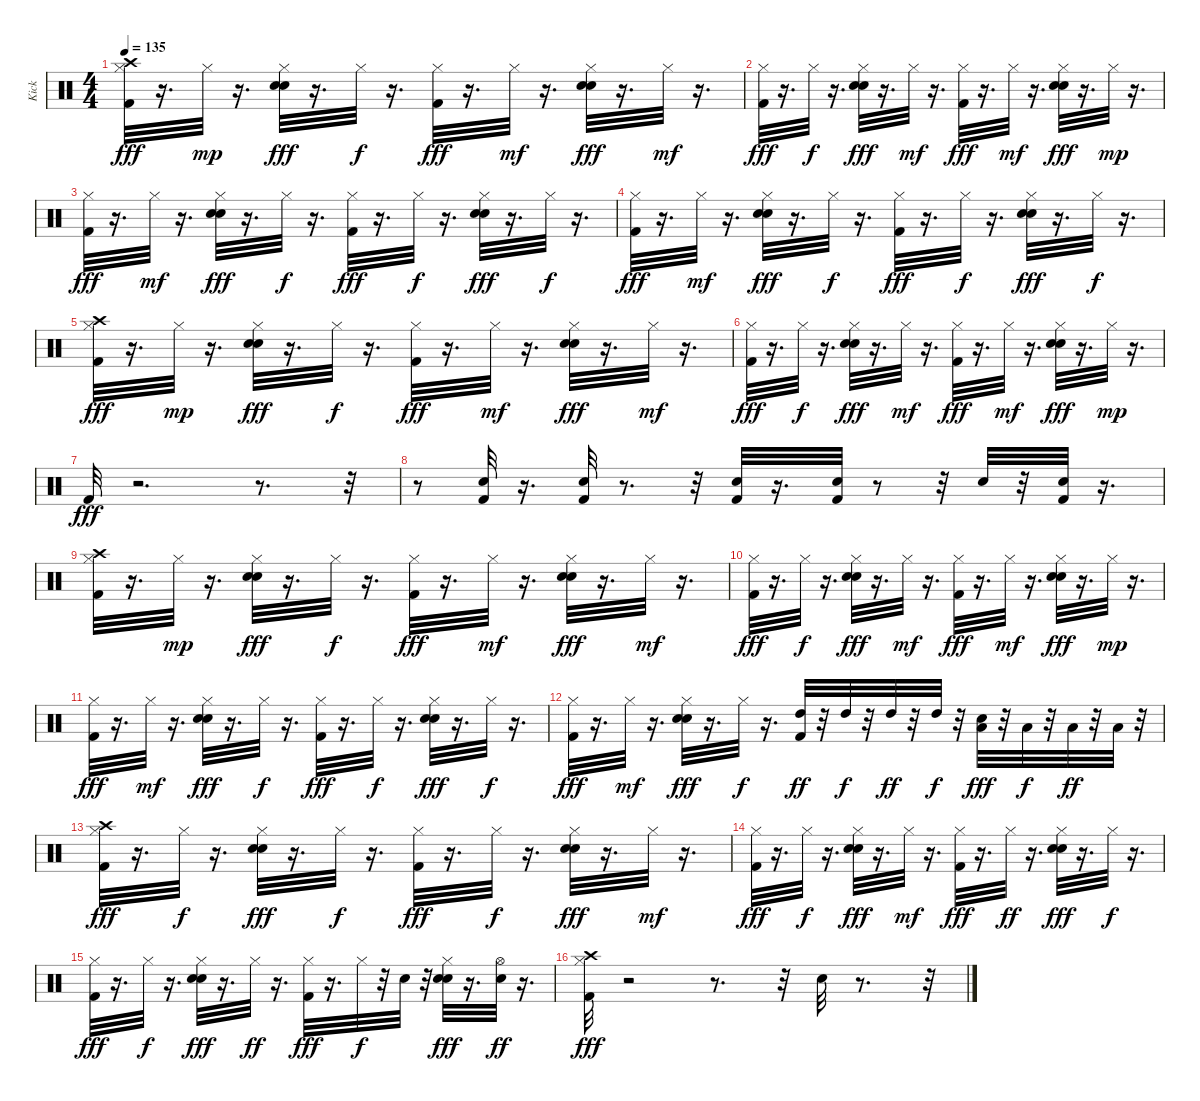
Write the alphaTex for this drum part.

\track ("Kick" "Kick") {instrument percussion}
\staff {score}
\articulation defaults
\ts (4 4)
\tempo 135
\clef neutral
\ks c
("Kick (hit) 2" "Hi-Hat (closed)" "Crash high (hit)").32{dy fff} r.16{d} "Hi-Hat (closed)".32{dy mp} r.16{d} ("Electric Snare (hit)" "Hi-Hat (closed)" "Hand Clap (hit)").32{dy fff} r.16{d} "Hi-Hat (closed)".32{dy f} r.16{d} ("Kick (hit) 2" "Hi-Hat (closed)").32{dy fff} r.16{d} "Hi-Hat (closed)".32{dy mf} r.16{d} ("Electric Snare (hit)" "Hi-Hat (closed)" "Hand Clap (hit)").32{dy fff} r.16{d} "Hi-Hat (closed)".32{dy mf} r.16{d} |
("Kick (hit) 2" "Hi-Hat (closed)").32{dy fff} r.16{d} "Hi-Hat (closed)".32{dy f} r.16{d} ("Electric Snare (hit)" "Hi-Hat (closed)" "Hand Clap (hit)").32{dy fff} r.16{d} "Hi-Hat (closed)".32{dy mf} r.16{d} ("Kick (hit) 2" "Hi-Hat (closed)").32{dy fff} r.16{d} "Hi-Hat (closed)".32{dy mf} r.16{d} ("Electric Snare (hit)" "Hi-Hat (closed)" "Hand Clap (hit)").32{dy fff} r.16{d} "Hi-Hat (closed)".32{dy mp} r.16{d} |
("Kick (hit) 2" "Hi-Hat (closed)").32{dy fff} r.16{d} "Hi-Hat (closed)".32{dy mf} r.16{d} ("Electric Snare (hit)" "Hi-Hat (closed)" "Hand Clap (hit)").32{dy fff} r.16{d} "Hi-Hat (closed)".32{dy f} r.16{d} ("Kick (hit) 2" "Hi-Hat (closed)").32{dy fff} r.16{d} "Hi-Hat (closed)".32{dy f} r.16{d} ("Electric Snare (hit)" "Hi-Hat (closed)" "Hand Clap (hit)").32{dy fff} r.16{d} "Hi-Hat (closed)".32{dy f} r.16{d} |
("Kick (hit) 2" "Hi-Hat (closed)").32{dy fff} r.16{d} "Hi-Hat (closed)".32{dy mf} r.16{d} ("Electric Snare (hit)" "Hi-Hat (closed)" "Hand Clap (hit)").32{dy fff} r.16{d} "Hi-Hat (closed)".32{dy f} r.16{d} ("Kick (hit) 2" "Hi-Hat (closed)").32{dy fff} r.16{d} "Hi-Hat (closed)".32{dy f} r.16{d} ("Electric Snare (hit)" "Hi-Hat (closed)" "Hand Clap (hit)").32{dy fff} r.16{d} "Hi-Hat (closed)".32{dy f} r.16{d} |
("Kick (hit) 2" "Hi-Hat (closed)" "Crash high (hit)").32{dy fff} r.16{d} "Hi-Hat (closed)".32{dy mp} r.16{d} ("Electric Snare (hit)" "Hi-Hat (closed)" "Hand Clap (hit)").32{dy fff} r.16{d} "Hi-Hat (closed)".32{dy f} r.16{d} ("Kick (hit) 2" "Hi-Hat (closed)").32{dy fff} r.16{d} "Hi-Hat (closed)".32{dy mf} r.16{d} ("Electric Snare (hit)" "Hi-Hat (closed)" "Hand Clap (hit)").32{dy fff} r.16{d} "Hi-Hat (closed)".32{dy mf} r.16{d} |
("Kick (hit) 2" "Hi-Hat (closed)").32{dy fff} r.16{d} "Hi-Hat (closed)".32{dy f} r.16{d} ("Electric Snare (hit)" "Hi-Hat (closed)" "Hand Clap (hit)").32{dy fff} r.16{d} "Hi-Hat (closed)".32{dy mf} r.16{d} ("Kick (hit) 2" "Hi-Hat (closed)").32{dy fff} r.16{d} "Hi-Hat (closed)".32{dy mf} r.16{d} ("Electric Snare (hit)" "Hi-Hat (closed)" "Hand Clap (hit)").32{dy fff} r.16{d} "Hi-Hat (closed)".32{dy mp} r.16{d} |
"Kick (hit) 2".32{dy fff} r.2{d} r.8{d} r.32 |
r.8 ("Kick (hit) 2" "Electric Snare (hit)").32 r.16{d} ("Kick (hit) 2" "Electric Snare (hit)").32 r.8{d} r.32 ("Kick (hit) 2" "Electric Snare (hit)").32 r.16{d} ("Kick (hit) 2" "Electric Snare (hit)").32 r.8 r.32 "Electric Snare (hit)".32 r.32 ("Kick (hit) 2" "Electric Snare (hit)").32 r.16{d} |
("Kick (hit) 2" "Hi-Hat (closed)" "Crash high (hit)").32 r.16{d} "Hi-Hat (closed)".32{dy mp} r.16{d} ("Electric Snare (hit)" "Hi-Hat (closed)" "Hand Clap (hit)").32{dy fff} r.16{d} "Hi-Hat (closed)".32{dy f} r.16{d} ("Kick (hit) 2" "Hi-Hat (closed)").32{dy fff} r.16{d} "Hi-Hat (closed)".32{dy mf} r.16{d} ("Electric Snare (hit)" "Hi-Hat (closed)" "Hand Clap (hit)").32{dy fff} r.16{d} "Hi-Hat (closed)".32{dy mf} r.16{d} |
("Kick (hit) 2" "Hi-Hat (closed)").32{dy fff} r.16{d} "Hi-Hat (closed)".32{dy f} r.16{d} ("Electric Snare (hit)" "Hi-Hat (closed)" "Hand Clap (hit)").32{dy fff} r.16{d} "Hi-Hat (closed)".32{dy mf} r.16{d} ("Kick (hit) 2" "Hi-Hat (closed)").32{dy fff} r.16{d} "Hi-Hat (closed)".32{dy mf} r.16{d} ("Electric Snare (hit)" "Hi-Hat (closed)" "Hand Clap (hit)").32{dy fff} r.16{d} "Hi-Hat (closed)".32{dy mp} r.16{d} |
("Kick (hit) 2" "Hi-Hat (closed)").32{dy fff} r.16{d} "Hi-Hat (closed)".32{dy mf} r.16{d} ("Electric Snare (hit)" "Hi-Hat (closed)" "Hand Clap (hit)").32{dy fff} r.16{d} "Hi-Hat (closed)".32{dy f} r.16{d} ("Kick (hit) 2" "Hi-Hat (closed)").32{dy fff} r.16{d} "Hi-Hat (closed)".32{dy f} r.16{d} ("Electric Snare (hit)" "Hi-Hat (closed)" "Hand Clap (hit)").32{dy fff} r.16{d} "Hi-Hat (closed)".32{dy f} r.16{d} |
("Kick (hit) 2" "Hi-Hat (closed)").32{dy fff} r.16{d} "Hi-Hat (closed)".32{dy mf} r.16{d} ("Electric Snare (hit)" "Hi-Hat (closed)" "Hand Clap (hit)").32{dy fff} r.16{d} "Hi-Hat (closed)".32{dy f} r.16{d} ("Kick (hit) 2" "High Tom (hit)").32{dy ff} r.32 "High Tom (hit)".32{dy f} r.32 "High Tom (hit)".32{dy ff} r.32 "High Tom (hit)".32{dy f} r.32 ("Low Tom (hit)" "Hand Clap (hit)").32{dy fff} r.32 "Low Tom (hit)".32{dy f} r.32 "Low Tom (hit)".32{dy ff} r.32 "Low Tom (hit)".32 r.32 |
("Kick (hit) 2" "Hi-Hat (closed)" "Crash high (hit)").32{dy fff} r.16{d} "Hi-Hat (closed)".32{dy f} r.16{d} ("Electric Snare (hit)" "Hi-Hat (closed)" "Hand Clap (hit)").32{dy fff} r.16{d} "Hi-Hat (closed)".32{dy f} r.16{d} ("Kick (hit) 2" "Hi-Hat (closed)").32{dy fff} r.16{d} "Hi-Hat (closed)".32{dy f} r.16{d} ("Electric Snare (hit)" "Hi-Hat (closed)" "Hand Clap (hit)").32{dy fff} r.16{d} "Hi-Hat (closed)".32{dy mf} r.16{d} |
("Kick (hit) 2" "Hi-Hat (closed)").32{dy fff} r.16{d} "Hi-Hat (closed)".32{dy f} r.16{d} ("Electric Snare (hit)" "Hi-Hat (closed)" "Hand Clap (hit)").32{dy fff} r.16{d} "Hi-Hat (closed)".32{dy mf} r.16{d} ("Kick (hit) 2" "Hi-Hat (closed)").32{dy fff} r.16{d} "Hi-Hat (closed)".32{dy ff} r.16{d} ("Electric Snare (hit)" "Hi-Hat (closed)" "Hand Clap (hit)").32{dy fff} r.16{d} "Hi-Hat (closed)".32{dy f} r.16{d} |
("Kick (hit) 2" "Hi-Hat (closed)").32{dy fff} r.16{d} "Hi-Hat (closed)".32{dy f} r.16{d} ("Electric Snare (hit)" "Hi-Hat (closed)" "Hand Clap (hit)").32{dy fff} r.16{d} "Hi-Hat (closed)".32{dy ff} r.16{d} ("Kick (hit) 2" "Hi-Hat (closed)").32{dy fff} r.16{d} "Hi-Hat (closed)".32{dy f} r.32 "Electric Snare (hit)".32 r.32 ("Electric Snare (hit)" "Hi-Hat (closed)" "Hand Clap (hit)").32{dy fff} r.16{d} ("Electric Snare (hit)" "Hi-Hat (open)").32{dy ff} r.16{d} |
("Kick (hit) 2" "Hi-Hat (closed)" "Crash high (hit)").32{dy fff} r.2 r.8{d} r.32 "Electric Snare (hit)".32 r.8{d} r.32
